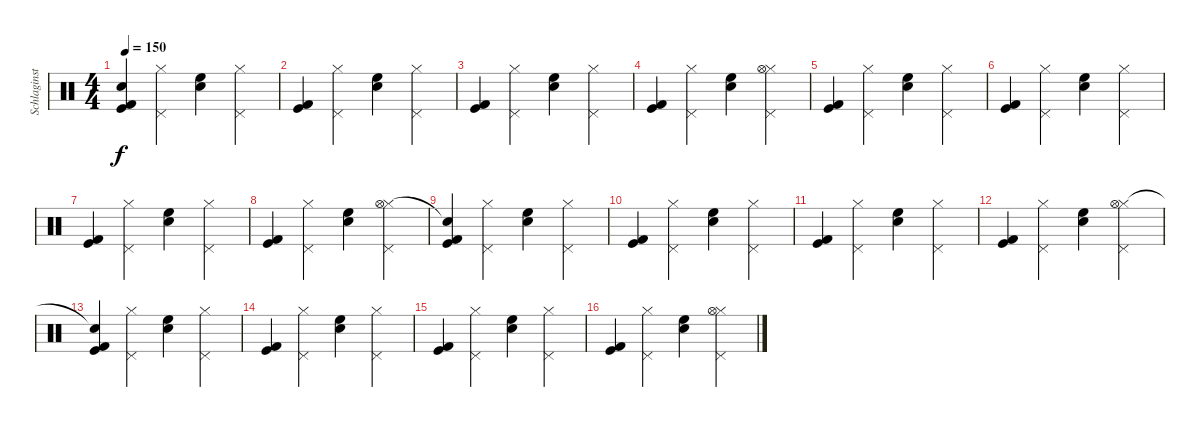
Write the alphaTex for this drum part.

\track ("Schlaginstrumente - Auswahl" "Schlaginst") {instrument percussion}
\staff {score}
\articulation defaults
\ts (4 4)
\tempo 150
\clef neutral
\ks c
("Kick (hit) 2" "Kick (hit)" "Snare (hit)"{t}).4{dy f} ("Pedal Hi-Hat (hit)" "Hi-Hat (closed)").4 ("High Floor Tom (hit)" "Snare (hit) 2").4 ("Pedal Hi-Hat (hit)" "Hi-Hat (closed)").4 |
("Kick (hit) 2" "Kick (hit)").4 ("Pedal Hi-Hat (hit)" "Hi-Hat (closed)").4 ("High Floor Tom (hit)" "Snare (hit) 2").4 ("Pedal Hi-Hat (hit)" "Hi-Hat (closed)").4 |
("Kick (hit) 2" "Kick (hit)").4 ("Pedal Hi-Hat (hit)" "Hi-Hat (closed)").4 ("High Floor Tom (hit)" "Snare (hit) 2").4 ("Pedal Hi-Hat (hit)" "Hi-Hat (closed)").4 |
("Kick (hit) 2" "Kick (hit)").4 ("Pedal Hi-Hat (hit)" "Hi-Hat (closed)").4 ("High Floor Tom (hit)" "Snare (hit) 2").4 ("Pedal Hi-Hat (hit)" "Hi-Hat (closed)" "Hi-Hat (open)").4 |
("Kick (hit) 2" "Kick (hit)").4 ("Pedal Hi-Hat (hit)" "Hi-Hat (closed)").4 ("High Floor Tom (hit)" "Snare (hit) 2").4 ("Pedal Hi-Hat (hit)" "Hi-Hat (closed)").4 |
("Kick (hit) 2" "Kick (hit)").4 ("Pedal Hi-Hat (hit)" "Hi-Hat (closed)").4 ("High Floor Tom (hit)" "Snare (hit) 2").4 ("Pedal Hi-Hat (hit)" "Hi-Hat (closed)").4 |
("Kick (hit) 2" "Kick (hit)").4 ("Pedal Hi-Hat (hit)" "Hi-Hat (closed)").4 ("High Floor Tom (hit)" "Snare (hit) 2").4 ("Pedal Hi-Hat (hit)" "Hi-Hat (closed)").4 |
("Kick (hit) 2" "Kick (hit)").4 ("Pedal Hi-Hat (hit)" "Hi-Hat (closed)").4 ("High Floor Tom (hit)" "Snare (hit) 2").4 ("Pedal Hi-Hat (hit)" "Hi-Hat (closed)" "Hi-Hat (open)").4 |
("Kick (hit) 2" "Kick (hit)" "Snare (hit)"{t}).4 ("Pedal Hi-Hat (hit)" "Hi-Hat (closed)").4 ("High Floor Tom (hit)" "Snare (hit) 2").4 ("Pedal Hi-Hat (hit)" "Hi-Hat (closed)").4 |
("Kick (hit) 2" "Kick (hit)").4 ("Pedal Hi-Hat (hit)" "Hi-Hat (closed)").4 ("High Floor Tom (hit)" "Snare (hit) 2").4 ("Pedal Hi-Hat (hit)" "Hi-Hat (closed)").4 |
("Kick (hit) 2" "Kick (hit)").4 ("Pedal Hi-Hat (hit)" "Hi-Hat (closed)").4 ("High Floor Tom (hit)" "Snare (hit) 2").4 ("Pedal Hi-Hat (hit)" "Hi-Hat (closed)").4 |
("Kick (hit) 2" "Kick (hit)").4 ("Pedal Hi-Hat (hit)" "Hi-Hat (closed)").4 ("High Floor Tom (hit)" "Snare (hit) 2").4 ("Pedal Hi-Hat (hit)" "Hi-Hat (closed)" "Hi-Hat (open)").4 |
("Kick (hit) 2" "Kick (hit)" "Snare (hit)"{t}).4 ("Pedal Hi-Hat (hit)" "Hi-Hat (closed)").4 ("High Floor Tom (hit)" "Snare (hit) 2").4 ("Pedal Hi-Hat (hit)" "Hi-Hat (closed)").4 |
("Kick (hit) 2" "Kick (hit)").4 ("Pedal Hi-Hat (hit)" "Hi-Hat (closed)").4 ("High Floor Tom (hit)" "Snare (hit) 2").4 ("Pedal Hi-Hat (hit)" "Hi-Hat (closed)").4 |
("Kick (hit) 2" "Kick (hit)").4 ("Pedal Hi-Hat (hit)" "Hi-Hat (closed)").4 ("High Floor Tom (hit)" "Snare (hit) 2").4 ("Pedal Hi-Hat (hit)" "Hi-Hat (closed)").4 |
("Kick (hit) 2" "Kick (hit)").4 ("Pedal Hi-Hat (hit)" "Hi-Hat (closed)").4 ("High Floor Tom (hit)" "Snare (hit) 2").4 ("Pedal Hi-Hat (hit)" "Hi-Hat (closed)" "Hi-Hat (open)").4
